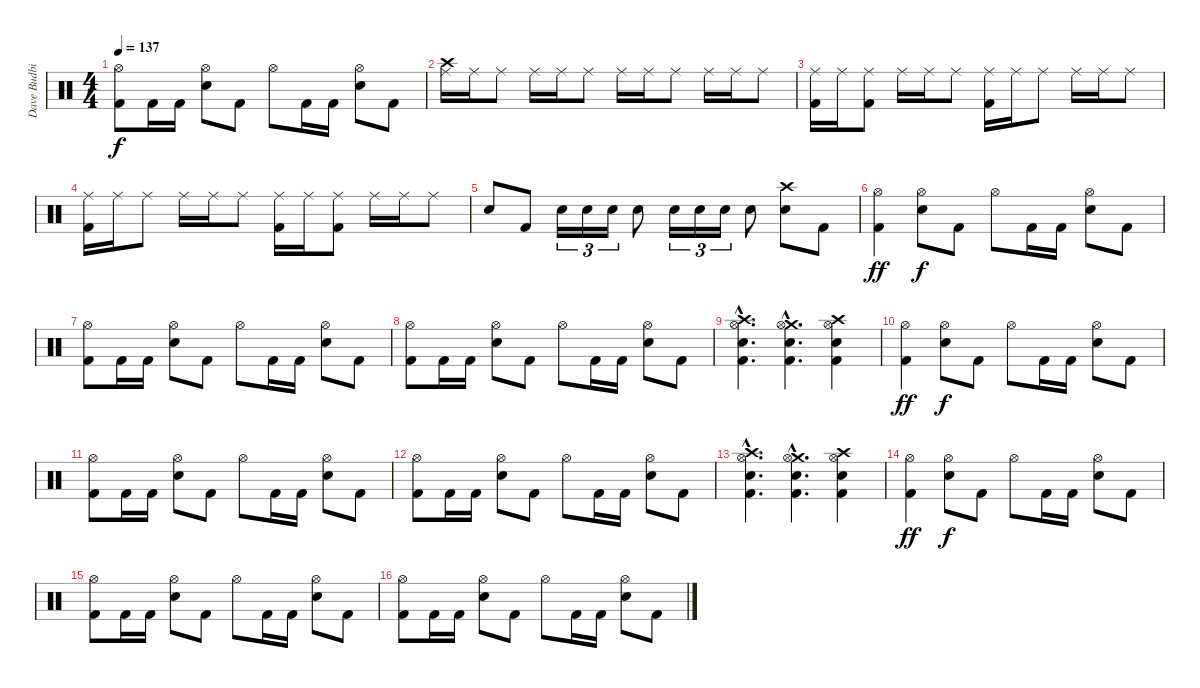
\track ("Dave Budbill" "Dave Budbi") {instrument percussion}
\staff {score}
\articulation defaults
\ts (4 4)
\tempo 137
\clef neutral
\ks c
("Hi-Hat (open)" "Kick (hit) 2").8{dy f} "Kick (hit) 2".16 "Kick (hit) 2".16 ("Hi-Hat (open)" "Electric Snare (hit)").8 "Kick (hit) 2".8 "Hi-Hat (open)".8 "Kick (hit) 2".16 "Kick (hit) 2".16 ("Hi-Hat (open)" "Electric Snare (hit)").8 "Kick (hit) 2".8 |
("Crash high (hit)" "Ride (middle)").16 "Ride (middle)".16 "Ride (middle)".8 "Ride (middle)".16 "Ride (middle)".16 "Ride (middle)".8 "Ride (middle)".16 "Ride (middle)".16 "Ride (middle)".8 "Ride (middle)".16 "Ride (middle)".16 "Ride (middle)".8 |
("Ride (middle)" "Kick (hit) 2").16 "Ride (middle)".16 ("Ride (middle)" "Kick (hit) 2").8 "Ride (middle)".16 "Ride (middle)".16 "Ride (middle)".8 ("Ride (middle)" "Kick (hit) 2").16 "Ride (middle)".16 "Ride (middle)".8 "Ride (middle)".16 "Ride (middle)".16 "Ride (middle)".8 |
("Ride (middle)" "Kick (hit) 2").16 "Ride (middle)".16 "Ride (middle)".8 "Ride (middle)".16 "Ride (middle)".16 "Ride (middle)".8 ("Ride (middle)" "Kick (hit) 2").16 "Ride (middle)".16 ("Ride (middle)" "Kick (hit) 2").8 "Ride (middle)".16 "Ride (middle)".16 "Ride (middle)".8 |
"Electric Snare (hit)".8 "Kick (hit) 2".8 "Snare (hit) 2".16{tu (3 2)} "Snare (hit) 2".16{tu (3 2)} "Snare (hit) 2".16{tu (3 2)} "Snare (hit) 2".8 "Snare (hit) 2".16{tu (3 2)} "Snare (hit) 2".16{tu (3 2)} "Snare (hit) 2".16{tu (3 2)} "Snare (hit) 2".8 ("Crash high (hit)" "Electric Snare (hit)").8 "Kick (hit) 2".8 |
("Hi-Hat (open)" "Kick (hit) 2").4{dy ff} ("Hi-Hat (open)" "Electric Snare (hit)").8{dy f} "Kick (hit) 2".8 "Hi-Hat (open)".8 "Kick (hit) 2".16 "Kick (hit) 2".16 ("Hi-Hat (open)" "Electric Snare (hit)").8 "Kick (hit) 2".8 |
("Hi-Hat (open)" "Kick (hit) 2").8 "Kick (hit) 2".16 "Kick (hit) 2".16 ("Hi-Hat (open)" "Electric Snare (hit)").8 "Kick (hit) 2".8 "Hi-Hat (open)".8 "Kick (hit) 2".16 "Kick (hit) 2".16 ("Hi-Hat (open)" "Electric Snare (hit)").8 "Kick (hit) 2".8 |
("Hi-Hat (open)" "Kick (hit) 2").8 "Kick (hit) 2".16 "Kick (hit) 2".16 ("Hi-Hat (open)" "Electric Snare (hit)").8 "Kick (hit) 2".8 "Hi-Hat (open)".8 "Kick (hit) 2".16 "Kick (hit) 2".16 ("Hi-Hat (open)" "Electric Snare (hit)").8 "Kick (hit) 2".8 |
("Snare (hit) 2"{hac} "Crash high (hit)"{hac} "Hi-Hat (open)"{hac} "Kick (hit) 2"{hac}).4{d} ("Snare (hit) 2"{hac} "Crash medium (hit)"{hac} "Hi-Hat (open)"{hac} "Kick (hit) 2"{hac}).4{d} ("Snare (hit) 2" "Crash high (hit)" "Hi-Hat (open)" "Kick (hit) 2").4 |
("Hi-Hat (open)" "Kick (hit) 2").4{dy ff} ("Hi-Hat (open)" "Electric Snare (hit)").8{dy f} "Kick (hit) 2".8 "Hi-Hat (open)".8 "Kick (hit) 2".16 "Kick (hit) 2".16 ("Hi-Hat (open)" "Electric Snare (hit)").8 "Kick (hit) 2".8 |
("Hi-Hat (open)" "Kick (hit) 2").8 "Kick (hit) 2".16 "Kick (hit) 2".16 ("Hi-Hat (open)" "Electric Snare (hit)").8 "Kick (hit) 2".8 "Hi-Hat (open)".8 "Kick (hit) 2".16 "Kick (hit) 2".16 ("Hi-Hat (open)" "Electric Snare (hit)").8 "Kick (hit) 2".8 |
("Hi-Hat (open)" "Kick (hit) 2").8 "Kick (hit) 2".16 "Kick (hit) 2".16 ("Hi-Hat (open)" "Electric Snare (hit)").8 "Kick (hit) 2".8 "Hi-Hat (open)".8 "Kick (hit) 2".16 "Kick (hit) 2".16 ("Hi-Hat (open)" "Electric Snare (hit)").8 "Kick (hit) 2".8 |
("Snare (hit) 2"{hac} "Crash high (hit)"{hac} "Hi-Hat (open)"{hac} "Kick (hit) 2"{hac}).4{d} ("Snare (hit) 2"{hac} "Crash medium (hit)"{hac} "Hi-Hat (open)"{hac} "Kick (hit) 2"{hac}).4{d} ("Snare (hit) 2" "Crash high (hit)" "Hi-Hat (open)" "Kick (hit) 2").4 |
("Hi-Hat (open)" "Kick (hit) 2").4{dy ff} ("Hi-Hat (open)" "Electric Snare (hit)").8{dy f} "Kick (hit) 2".8 "Hi-Hat (open)".8 "Kick (hit) 2".16 "Kick (hit) 2".16 ("Hi-Hat (open)" "Electric Snare (hit)").8 "Kick (hit) 2".8 |
("Hi-Hat (open)" "Kick (hit) 2").8 "Kick (hit) 2".16 "Kick (hit) 2".16 ("Hi-Hat (open)" "Electric Snare (hit)").8 "Kick (hit) 2".8 "Hi-Hat (open)".8 "Kick (hit) 2".16 "Kick (hit) 2".16 ("Hi-Hat (open)" "Electric Snare (hit)").8 "Kick (hit) 2".8 |
("Hi-Hat (open)" "Kick (hit) 2").8 "Kick (hit) 2".16 "Kick (hit) 2".16 ("Hi-Hat (open)" "Electric Snare (hit)").8 "Kick (hit) 2".8 "Hi-Hat (open)".8 "Kick (hit) 2".16 "Kick (hit) 2".16 ("Hi-Hat (open)" "Electric Snare (hit)").8 "Kick (hit) 2".8
